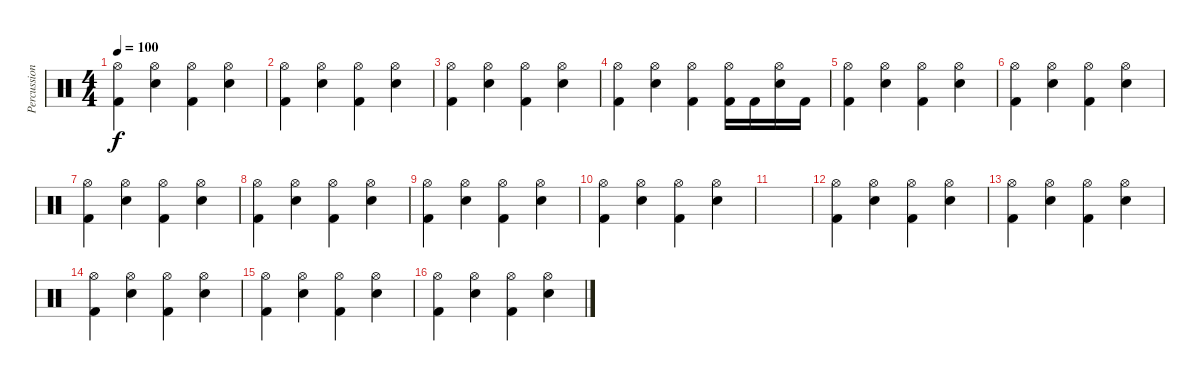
\track ("Percussion" "Percussion") {instrument percussion}
\staff {score}
\articulation defaults
\ts (4 4)
\tempo 100
\clef neutral
\ks c
("Hi-Hat (open)" "Kick (hit) 2").4{dy f} ("Hi-Hat (open)" "Electric Snare (hit)").4 ("Hi-Hat (open)" "Kick (hit) 2").4 ("Hi-Hat (open)" "Electric Snare (hit)").4 |
("Hi-Hat (open)" "Kick (hit) 2").4 ("Hi-Hat (open)" "Electric Snare (hit)").4 ("Hi-Hat (open)" "Kick (hit) 2").4 ("Hi-Hat (open)" "Electric Snare (hit)").4 |
("Hi-Hat (open)" "Kick (hit) 2").4 ("Hi-Hat (open)" "Electric Snare (hit)").4 ("Hi-Hat (open)" "Kick (hit) 2").4 ("Hi-Hat (open)" "Electric Snare (hit)").4 |
("Hi-Hat (open)" "Kick (hit) 2").4 ("Hi-Hat (open)" "Electric Snare (hit)").4 ("Hi-Hat (open)" "Kick (hit) 2").4 ("Hi-Hat (open)" "Kick (hit) 2").16 "Kick (hit) 2".16 ("Hi-Hat (open)" "Electric Snare (hit)").16 "Kick (hit) 2".16 |
("Hi-Hat (open)" "Kick (hit) 2").4 ("Hi-Hat (open)" "Electric Snare (hit)").4 ("Hi-Hat (open)" "Kick (hit) 2").4 ("Hi-Hat (open)" "Electric Snare (hit)").4 |
("Hi-Hat (open)" "Kick (hit) 2").4 ("Hi-Hat (open)" "Electric Snare (hit)").4 ("Hi-Hat (open)" "Kick (hit) 2").4 ("Hi-Hat (open)" "Electric Snare (hit)").4 |
("Hi-Hat (open)" "Kick (hit) 2").4 ("Hi-Hat (open)" "Electric Snare (hit)").4 ("Hi-Hat (open)" "Kick (hit) 2").4 ("Hi-Hat (open)" "Electric Snare (hit)").4 |
("Hi-Hat (open)" "Kick (hit) 2").4 ("Hi-Hat (open)" "Electric Snare (hit)").4 ("Hi-Hat (open)" "Kick (hit) 2").4 ("Hi-Hat (open)" "Electric Snare (hit)").4 |
("Hi-Hat (open)" "Kick (hit) 2").4 ("Hi-Hat (open)" "Electric Snare (hit)").4 ("Hi-Hat (open)" "Kick (hit) 2").4 ("Hi-Hat (open)" "Electric Snare (hit)").4 |
("Hi-Hat (open)" "Kick (hit) 2").4 ("Hi-Hat (open)" "Electric Snare (hit)").4 ("Hi-Hat (open)" "Kick (hit) 2").4 ("Hi-Hat (open)" "Electric Snare (hit)").4 |
|
("Hi-Hat (open)" "Kick (hit) 2").4 ("Hi-Hat (open)" "Electric Snare (hit)").4 ("Hi-Hat (open)" "Kick (hit) 2").4 ("Hi-Hat (open)" "Electric Snare (hit)").4 |
("Hi-Hat (open)" "Kick (hit) 2").4 ("Hi-Hat (open)" "Electric Snare (hit)").4 ("Hi-Hat (open)" "Kick (hit) 2").4 ("Hi-Hat (open)" "Electric Snare (hit)").4 |
("Hi-Hat (open)" "Kick (hit) 2").4 ("Hi-Hat (open)" "Electric Snare (hit)").4 ("Hi-Hat (open)" "Kick (hit) 2").4 ("Hi-Hat (open)" "Electric Snare (hit)").4 |
("Hi-Hat (open)" "Kick (hit) 2").4 ("Hi-Hat (open)" "Electric Snare (hit)").4 ("Hi-Hat (open)" "Kick (hit) 2").4 ("Hi-Hat (open)" "Electric Snare (hit)").4 |
("Hi-Hat (open)" "Kick (hit) 2").4 ("Hi-Hat (open)" "Electric Snare (hit)").4 ("Hi-Hat (open)" "Kick (hit) 2").4 ("Hi-Hat (open)" "Electric Snare (hit)").4
